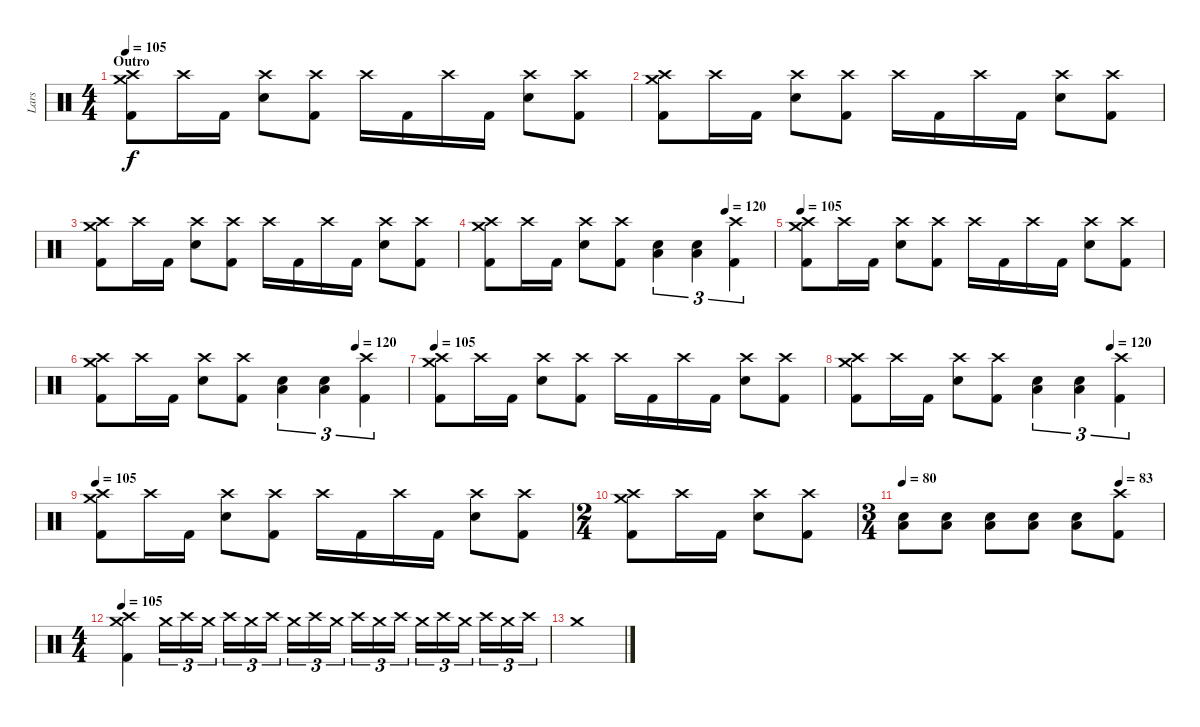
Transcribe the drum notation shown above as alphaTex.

\track ("Lars" "Lars") {instrument percussion}
\staff {score}
\articulation defaults
\ts (4 4)
\section ("" "Outro")
\tempo 105
\clef neutral
\ks c
("Crash high (hit)" "Crash medium (hit)" "Kick (hit) 2").8{dy f} "Crash high (hit)".16 "Kick (hit) 2".16 ("Crash high (hit)" "Electric Snare (hit)").8 ("Crash high (hit)" "Kick (hit) 2").8 "Crash high (hit)".16 "Kick (hit) 2".16 "Crash high (hit)".16 "Kick (hit) 2".16 ("Crash high (hit)" "Electric Snare (hit)").8 ("Crash high (hit)" "Kick (hit) 2").8 |
("Crash high (hit)" "Crash medium (hit)" "Kick (hit) 2").8 "Crash high (hit)".16 "Kick (hit) 2".16 ("Crash high (hit)" "Electric Snare (hit)").8 ("Crash high (hit)" "Kick (hit) 2").8 "Crash high (hit)".16 "Kick (hit) 2".16 "Crash high (hit)".16 "Kick (hit) 2".16 ("Crash high (hit)" "Electric Snare (hit)").8 ("Crash high (hit)" "Kick (hit) 2").8 |
("Crash high (hit)" "Crash medium (hit)" "Kick (hit) 2").8 "Crash high (hit)".16 "Kick (hit) 2".16 ("Crash high (hit)" "Electric Snare (hit)").8 ("Crash high (hit)" "Kick (hit) 2").8 "Crash high (hit)".16 "Kick (hit) 2".16 "Crash high (hit)".16 "Kick (hit) 2".16 ("Crash high (hit)" "Electric Snare (hit)").8 ("Crash high (hit)" "Kick (hit) 2").8 |
\tempo (120 0.8333333333333334)
("Crash high (hit)" "Crash medium (hit)" "Kick (hit) 2").8 "Crash high (hit)".16 "Kick (hit) 2".16 ("Crash high (hit)" "Electric Snare (hit)").8 ("Crash high (hit)" "Kick (hit) 2").8 ("Low Floor Tom (hit)" "Electric Snare (hit)").4{tu (3 2)} ("Low Floor Tom (hit)" "Electric Snare (hit)").4{tu (3 2)} ("Crash high (hit)" "Kick (hit) 2").4{tu (3 2)} |
\tempo 105
("Crash high (hit)" "Crash medium (hit)" "Kick (hit) 2").8 "Crash high (hit)".16 "Kick (hit) 2".16 ("Crash high (hit)" "Electric Snare (hit)").8 ("Crash high (hit)" "Kick (hit) 2").8 "Crash high (hit)".16 "Kick (hit) 2".16 "Crash high (hit)".16 "Kick (hit) 2".16 ("Crash high (hit)" "Electric Snare (hit)").8 ("Crash high (hit)" "Kick (hit) 2").8 |
\tempo (120 0.8333333333333334)
("Crash high (hit)" "Crash medium (hit)" "Kick (hit) 2").8 "Crash high (hit)".16 "Kick (hit) 2".16 ("Crash high (hit)" "Electric Snare (hit)").8 ("Crash high (hit)" "Kick (hit) 2").8 ("Low Floor Tom (hit)" "Electric Snare (hit)").4{tu (3 2)} ("Low Floor Tom (hit)" "Electric Snare (hit)").4{tu (3 2)} ("Crash high (hit)" "Kick (hit) 2").4{tu (3 2)} |
\tempo 105
("Crash high (hit)" "Crash medium (hit)" "Kick (hit) 2").8 "Crash high (hit)".16 "Kick (hit) 2".16 ("Crash high (hit)" "Electric Snare (hit)").8 ("Crash high (hit)" "Kick (hit) 2").8 "Crash high (hit)".16 "Kick (hit) 2".16 "Crash high (hit)".16 "Kick (hit) 2".16 ("Crash high (hit)" "Electric Snare (hit)").8 ("Crash high (hit)" "Kick (hit) 2").8 |
\tempo (120 0.8333333333333334)
("Crash high (hit)" "Crash medium (hit)" "Kick (hit) 2").8 "Crash high (hit)".16 "Kick (hit) 2".16 ("Crash high (hit)" "Electric Snare (hit)").8 ("Crash high (hit)" "Kick (hit) 2").8 ("Low Floor Tom (hit)" "Electric Snare (hit)").4{tu (3 2)} ("Low Floor Tom (hit)" "Electric Snare (hit)").4{tu (3 2)} ("Crash high (hit)" "Kick (hit) 2").4{tu (3 2)} |
\tempo 105
("Crash high (hit)" "Crash medium (hit)" "Kick (hit) 2").8 "Crash high (hit)".16 "Kick (hit) 2".16 ("Crash high (hit)" "Electric Snare (hit)").8 ("Crash high (hit)" "Kick (hit) 2").8 "Crash high (hit)".16 "Kick (hit) 2".16 "Crash high (hit)".16 "Kick (hit) 2".16 ("Crash high (hit)" "Electric Snare (hit)").8 ("Crash high (hit)" "Kick (hit) 2").8 |
\ts (2 4)
("Crash high (hit)" "Crash medium (hit)" "Kick (hit) 2").8 "Crash high (hit)".16 "Kick (hit) 2".16 ("Crash high (hit)" "Electric Snare (hit)").8 ("Crash high (hit)" "Kick (hit) 2").8 |
\ts (3 4)
\tempo 80
\tempo (83 0.8333333333333334)
("Low Floor Tom (hit)" "Electric Snare (hit)").8 ("Low Floor Tom (hit)" "Electric Snare (hit)").8 ("Low Floor Tom (hit)" "Electric Snare (hit)").8 ("Low Floor Tom (hit)" "Electric Snare (hit)").8 ("Low Floor Tom (hit)" "Electric Snare (hit)").8 ("Crash high (hit)" "Kick (hit) 2").8 |
\ts (4 4)
\tempo 105
("Crash medium (hit)" "Crash high (hit)" "Kick (hit) 2").4 "Crash medium (hit)".16{tu (3 2)} "Crash high (hit)".16{tu (3 2)} "Crash medium (hit)".16{tu (3 2) beam splitsecondary} "Crash high (hit)".16{tu (3 2)} "Crash medium (hit)".16{tu (3 2)} "Crash high (hit)".16{tu (3 2)} "Crash medium (hit)".16{tu (3 2)} "Crash high (hit)".16{tu (3 2)} "Crash medium (hit)".16{tu (3 2) beam splitsecondary} "Crash high (hit)".16{tu (3 2)} "Crash medium (hit)".16{tu (3 2)} "Crash high (hit)".16{tu (3 2)} "Crash medium (hit)".16{tu (3 2)} "Crash high (hit)".16{tu (3 2)} "Crash medium (hit)".16{tu (3 2) beam splitsecondary} "Crash high (hit)".16{tu (3 2)} "Crash medium (hit)".16{tu (3 2)} "Crash high (hit)".16{tu (3 2)} |
"Crash medium (hit)".1
